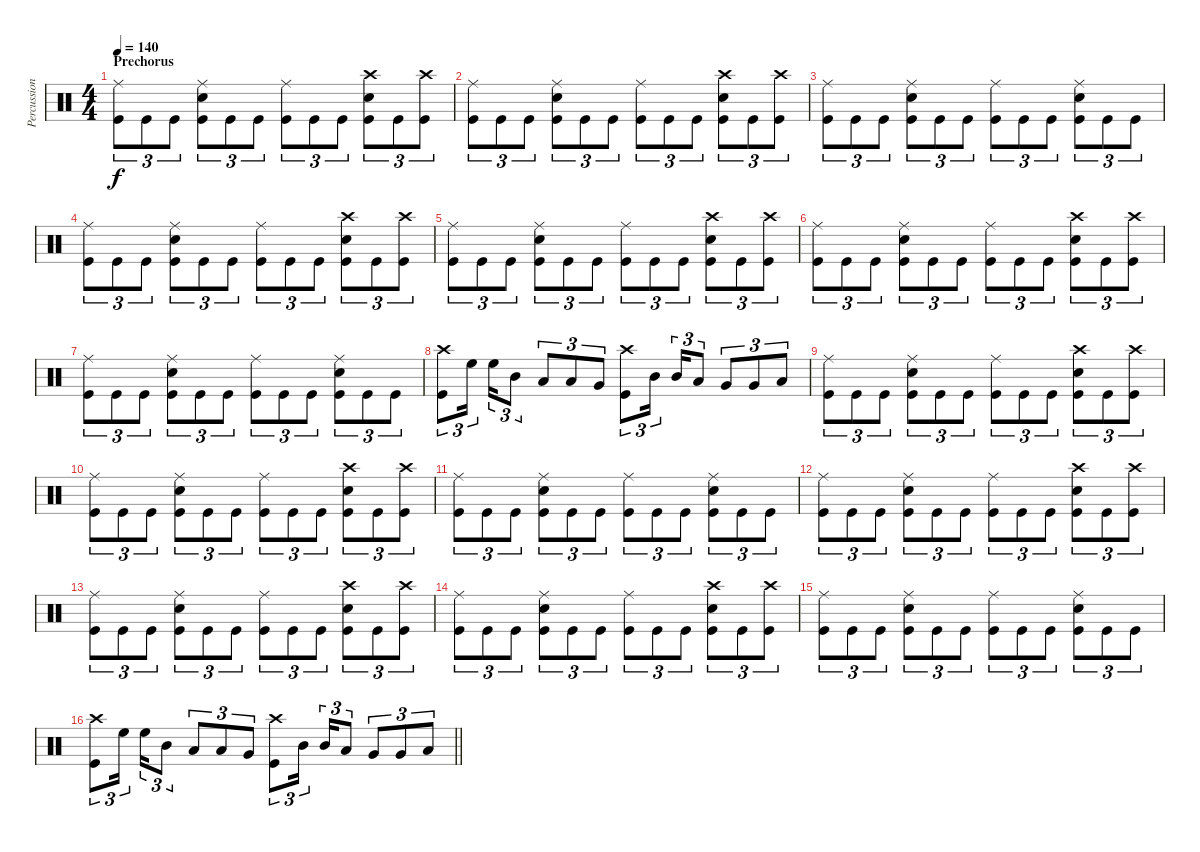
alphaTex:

\track ("Percussion" "Percussion") {instrument percussion}
\staff {score}
\articulation defaults
\ts (4 4)
\section ("" "Prechorus")
\tempo 140
\clef neutral
\ks c
("Ride (middle)" "Kick (hit)").8{tu (3 2) dy f} "Kick (hit)".8{tu (3 2)} "Kick (hit)".8{tu (3 2)} ("Ride (middle)" "Snare (hit) 2" "Kick (hit)").8{tu (3 2)} "Kick (hit)".8{tu (3 2)} "Kick (hit)".8{tu (3 2)} ("Ride (middle)" "Kick (hit)").8{tu (3 2)} "Kick (hit)".8{tu (3 2)} "Kick (hit)".8{tu (3 2)} ("Crash high (hit)" "Snare (hit) 2" "Kick (hit)").8{tu (3 2)} "Kick (hit)".8{tu (3 2)} ("Crash high (hit)" "Kick (hit)").8{tu (3 2)} |
("Ride (middle)" "Kick (hit)").8{tu (3 2)} "Kick (hit)".8{tu (3 2)} "Kick (hit)".8{tu (3 2)} ("Ride (middle)" "Snare (hit) 2" "Kick (hit)").8{tu (3 2)} "Kick (hit)".8{tu (3 2)} "Kick (hit)".8{tu (3 2)} ("Ride (middle)" "Kick (hit)").8{tu (3 2)} "Kick (hit)".8{tu (3 2)} "Kick (hit)".8{tu (3 2)} ("Crash high (hit)" "Snare (hit) 2" "Kick (hit)").8{tu (3 2)} "Kick (hit)".8{tu (3 2)} ("Crash high (hit)" "Kick (hit)").8{tu (3 2)} |
("Ride (middle)" "Kick (hit)").8{tu (3 2)} "Kick (hit)".8{tu (3 2)} "Kick (hit)".8{tu (3 2)} ("Ride (middle)" "Snare (hit) 2" "Kick (hit)").8{tu (3 2)} "Kick (hit)".8{tu (3 2)} "Kick (hit)".8{tu (3 2)} ("Ride (middle)" "Kick (hit)").8{tu (3 2)} "Kick (hit)".8{tu (3 2)} "Kick (hit)".8{tu (3 2)} ("Ride (middle)" "Snare (hit) 2" "Kick (hit)").8{tu (3 2)} "Kick (hit)".8{tu (3 2)} "Kick (hit)".8{tu (3 2)} |
("Ride (middle)" "Kick (hit)").8{tu (3 2)} "Kick (hit)".8{tu (3 2)} "Kick (hit)".8{tu (3 2)} ("Ride (middle)" "Snare (hit) 2" "Kick (hit)").8{tu (3 2)} "Kick (hit)".8{tu (3 2)} "Kick (hit)".8{tu (3 2)} ("Ride (middle)" "Kick (hit)").8{tu (3 2)} "Kick (hit)".8{tu (3 2)} "Kick (hit)".8{tu (3 2)} ("Crash high (hit)" "Snare (hit) 2" "Kick (hit)").8{tu (3 2)} "Kick (hit)".8{tu (3 2)} ("Crash high (hit)" "Kick (hit)").8{tu (3 2)} |
("Ride (middle)" "Kick (hit)").8{tu (3 2)} "Kick (hit)".8{tu (3 2)} "Kick (hit)".8{tu (3 2)} ("Ride (middle)" "Snare (hit) 2" "Kick (hit)").8{tu (3 2)} "Kick (hit)".8{tu (3 2)} "Kick (hit)".8{tu (3 2)} ("Ride (middle)" "Kick (hit)").8{tu (3 2)} "Kick (hit)".8{tu (3 2)} "Kick (hit)".8{tu (3 2)} ("Crash high (hit)" "Snare (hit) 2" "Kick (hit)").8{tu (3 2)} "Kick (hit)".8{tu (3 2)} ("Crash high (hit)" "Kick (hit)").8{tu (3 2)} |
("Ride (middle)" "Kick (hit)").8{tu (3 2)} "Kick (hit)".8{tu (3 2)} "Kick (hit)".8{tu (3 2)} ("Ride (middle)" "Snare (hit) 2" "Kick (hit)").8{tu (3 2)} "Kick (hit)".8{tu (3 2)} "Kick (hit)".8{tu (3 2)} ("Ride (middle)" "Kick (hit)").8{tu (3 2)} "Kick (hit)".8{tu (3 2)} "Kick (hit)".8{tu (3 2)} ("Crash high (hit)" "Snare (hit) 2" "Kick (hit)").8{tu (3 2)} "Kick (hit)".8{tu (3 2)} ("Crash high (hit)" "Kick (hit)").8{tu (3 2)} |
("Ride (middle)" "Kick (hit)").8{tu (3 2)} "Kick (hit)".8{tu (3 2)} "Kick (hit)".8{tu (3 2)} ("Ride (middle)" "Snare (hit) 2" "Kick (hit)").8{tu (3 2)} "Kick (hit)".8{tu (3 2)} "Kick (hit)".8{tu (3 2)} ("Ride (middle)" "Kick (hit)").8{tu (3 2)} "Kick (hit)".8{tu (3 2)} "Kick (hit)".8{tu (3 2)} ("Ride (middle)" "Snare (hit) 2" "Kick (hit)").8{tu (3 2)} "Kick (hit)".8{tu (3 2)} "Kick (hit)".8{tu (3 2)} |
("Crash high (hit)" "Kick (hit)").8{tu (3 2)} "High Floor Tom (hit)".16{tu (3 2)} "High Floor Tom (hit)".16{tu (3 2)} "Mid Tom (hit)".8{tu (3 2)} "Low Tom (hit)".8{tu (3 2)} "Low Tom (hit)".8{tu (3 2)} "Very Low Tom (hit)".8{tu (3 2)} ("Crash high (hit)" "Kick (hit)").8{tu (3 2)} "Mid Tom (hit)".16{tu (3 2)} "Mid Tom (hit)".16{tu (3 2)} "Low Tom (hit)".8{tu (3 2)} "Very Low Tom (hit)".8{tu (3 2)} "Very Low Tom (hit)".8{tu (3 2)} "Low Floor Tom (hit)".8{tu (3 2)} |
("Ride (middle)" "Kick (hit)").8{tu (3 2)} "Kick (hit)".8{tu (3 2)} "Kick (hit)".8{tu (3 2)} ("Ride (middle)" "Snare (hit) 2" "Kick (hit)").8{tu (3 2)} "Kick (hit)".8{tu (3 2)} "Kick (hit)".8{tu (3 2)} ("Ride (middle)" "Kick (hit)").8{tu (3 2)} "Kick (hit)".8{tu (3 2)} "Kick (hit)".8{tu (3 2)} ("Crash high (hit)" "Snare (hit) 2" "Kick (hit)").8{tu (3 2)} "Kick (hit)".8{tu (3 2)} ("Crash high (hit)" "Kick (hit)").8{tu (3 2)} |
("Ride (middle)" "Kick (hit)").8{tu (3 2)} "Kick (hit)".8{tu (3 2)} "Kick (hit)".8{tu (3 2)} ("Ride (middle)" "Snare (hit) 2" "Kick (hit)").8{tu (3 2)} "Kick (hit)".8{tu (3 2)} "Kick (hit)".8{tu (3 2)} ("Ride (middle)" "Kick (hit)").8{tu (3 2)} "Kick (hit)".8{tu (3 2)} "Kick (hit)".8{tu (3 2)} ("Crash high (hit)" "Snare (hit) 2" "Kick (hit)").8{tu (3 2)} "Kick (hit)".8{tu (3 2)} ("Crash high (hit)" "Kick (hit)").8{tu (3 2)} |
("Ride (middle)" "Kick (hit)").8{tu (3 2)} "Kick (hit)".8{tu (3 2)} "Kick (hit)".8{tu (3 2)} ("Ride (middle)" "Snare (hit) 2" "Kick (hit)").8{tu (3 2)} "Kick (hit)".8{tu (3 2)} "Kick (hit)".8{tu (3 2)} ("Ride (middle)" "Kick (hit)").8{tu (3 2)} "Kick (hit)".8{tu (3 2)} "Kick (hit)".8{tu (3 2)} ("Ride (middle)" "Snare (hit) 2" "Kick (hit)").8{tu (3 2)} "Kick (hit)".8{tu (3 2)} "Kick (hit)".8{tu (3 2)} |
("Ride (middle)" "Kick (hit)").8{tu (3 2)} "Kick (hit)".8{tu (3 2)} "Kick (hit)".8{tu (3 2)} ("Ride (middle)" "Snare (hit) 2" "Kick (hit)").8{tu (3 2)} "Kick (hit)".8{tu (3 2)} "Kick (hit)".8{tu (3 2)} ("Ride (middle)" "Kick (hit)").8{tu (3 2)} "Kick (hit)".8{tu (3 2)} "Kick (hit)".8{tu (3 2)} ("Crash high (hit)" "Snare (hit) 2" "Kick (hit)").8{tu (3 2)} "Kick (hit)".8{tu (3 2)} ("Crash high (hit)" "Kick (hit)").8{tu (3 2)} |
("Ride (middle)" "Kick (hit)").8{tu (3 2)} "Kick (hit)".8{tu (3 2)} "Kick (hit)".8{tu (3 2)} ("Ride (middle)" "Snare (hit) 2" "Kick (hit)").8{tu (3 2)} "Kick (hit)".8{tu (3 2)} "Kick (hit)".8{tu (3 2)} ("Ride (middle)" "Kick (hit)").8{tu (3 2)} "Kick (hit)".8{tu (3 2)} "Kick (hit)".8{tu (3 2)} ("Crash high (hit)" "Snare (hit) 2" "Kick (hit)").8{tu (3 2)} "Kick (hit)".8{tu (3 2)} ("Crash high (hit)" "Kick (hit)").8{tu (3 2)} |
("Ride (middle)" "Kick (hit)").8{tu (3 2)} "Kick (hit)".8{tu (3 2)} "Kick (hit)".8{tu (3 2)} ("Ride (middle)" "Snare (hit) 2" "Kick (hit)").8{tu (3 2)} "Kick (hit)".8{tu (3 2)} "Kick (hit)".8{tu (3 2)} ("Ride (middle)" "Kick (hit)").8{tu (3 2)} "Kick (hit)".8{tu (3 2)} "Kick (hit)".8{tu (3 2)} ("Crash high (hit)" "Snare (hit) 2" "Kick (hit)").8{tu (3 2)} "Kick (hit)".8{tu (3 2)} ("Crash high (hit)" "Kick (hit)").8{tu (3 2)} |
("Ride (middle)" "Kick (hit)").8{tu (3 2)} "Kick (hit)".8{tu (3 2)} "Kick (hit)".8{tu (3 2)} ("Ride (middle)" "Snare (hit) 2" "Kick (hit)").8{tu (3 2)} "Kick (hit)".8{tu (3 2)} "Kick (hit)".8{tu (3 2)} ("Ride (middle)" "Kick (hit)").8{tu (3 2)} "Kick (hit)".8{tu (3 2)} "Kick (hit)".8{tu (3 2)} ("Ride (middle)" "Snare (hit) 2" "Kick (hit)").8{tu (3 2)} "Kick (hit)".8{tu (3 2)} "Kick (hit)".8{tu (3 2)} |
\barLineRight lightlight
("Crash high (hit)" "Kick (hit)").8{tu (3 2)} "High Floor Tom (hit)".16{tu (3 2)} "High Floor Tom (hit)".16{tu (3 2)} "Mid Tom (hit)".8{tu (3 2)} "Low Tom (hit)".8{tu (3 2)} "Low Tom (hit)".8{tu (3 2)} "Very Low Tom (hit)".8{tu (3 2)} ("Crash high (hit)" "Kick (hit)").8{tu (3 2)} "Mid Tom (hit)".16{tu (3 2)} "Mid Tom (hit)".16{tu (3 2)} "Low Tom (hit)".8{tu (3 2)} "Very Low Tom (hit)".8{tu (3 2)} "Very Low Tom (hit)".8{tu (3 2)} "Low Floor Tom (hit)".8{tu (3 2)}
